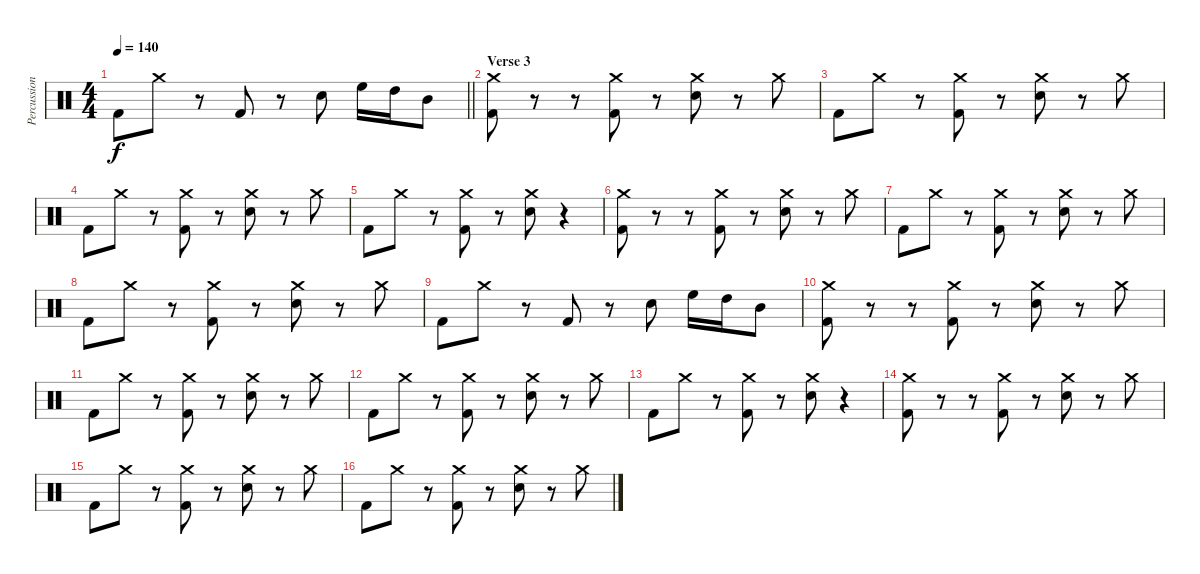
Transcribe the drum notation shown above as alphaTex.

\track ("Percussion" "Percussion") {instrument percussion}
\staff {score}
\articulation defaults
\ts (4 4)
\tempo 140
\clef neutral
\barLineRight lightlight
\ks c "Kick (hit) 2".8{dy f} "Crash medium (hit)".8
r.8 "Kick (hit) 2".8 r.8 "Electric Snare (hit)".8 "High Floor Tom (hit)".16 "High Tom (hit)".16 "Mid Tom (hit)".8 |
\section ("" "Verse 3")
("Crash medium (hit)" "Kick (hit) 2").8{volume 16} r.8 r.8 ("Crash medium (hit)" "Kick (hit) 2").8 r.8 ("Crash medium (hit)" "Electric Snare (hit)").8 r.8 "Crash medium (hit)".8 |
"Kick (hit) 2".8 "Crash medium (hit)".8 r.8 ("Crash medium (hit)" "Kick (hit) 2").8 r.8 ("Crash medium (hit)" "Electric Snare (hit)").8 r.8 "Crash medium (hit)".8 |
"Kick (hit) 2".8 "Crash medium (hit)".8 r.8 ("Crash medium (hit)" "Kick (hit) 2").8 r.8 ("Crash medium (hit)" "Electric Snare (hit)").8 r.8 "Crash medium (hit)".8 |
"Kick (hit) 2".8 "Crash medium (hit)".8 r.8 ("Crash medium (hit)" "Kick (hit) 2").8 r.8 ("Crash medium (hit)" "Electric Snare (hit)").8 r.4 |
("Crash medium (hit)" "Kick (hit) 2").8 r.8 r.8 ("Crash medium (hit)" "Kick (hit) 2").8 r.8 ("Crash medium (hit)" "Electric Snare (hit)").8 r.8 "Crash medium (hit)".8 |
"Kick (hit) 2".8 "Crash medium (hit)".8 r.8 ("Crash medium (hit)" "Kick (hit) 2").8 r.8 ("Crash medium (hit)" "Electric Snare (hit)").8 r.8 "Crash medium (hit)".8 |
"Kick (hit) 2".8 "Crash medium (hit)".8 r.8 ("Crash medium (hit)" "Kick (hit) 2").8 r.8 ("Crash medium (hit)" "Electric Snare (hit)").8 r.8 "Crash medium (hit)".8 |
"Kick (hit) 2".8 "Crash medium (hit)".8 r.8 "Kick (hit) 2".8 r.8 "Electric Snare (hit)".8 "High Floor Tom (hit)".16 "High Tom (hit)".16 "Mid Tom (hit)".8 |
("Crash medium (hit)" "Kick (hit) 2").8{volume 16} r.8 r.8 ("Crash medium (hit)" "Kick (hit) 2").8 r.8 ("Crash medium (hit)" "Electric Snare (hit)").8 r.8 "Crash medium (hit)".8 |
"Kick (hit) 2".8 "Crash medium (hit)".8 r.8 ("Crash medium (hit)" "Kick (hit) 2").8 r.8 ("Crash medium (hit)" "Electric Snare (hit)").8 r.8 "Crash medium (hit)".8 |
"Kick (hit) 2".8 "Crash medium (hit)".8 r.8 ("Crash medium (hit)" "Kick (hit) 2").8 r.8 ("Crash medium (hit)" "Electric Snare (hit)").8 r.8 "Crash medium (hit)".8 |
"Kick (hit) 2".8 "Crash medium (hit)".8 r.8 ("Crash medium (hit)" "Kick (hit) 2").8 r.8 ("Crash medium (hit)" "Electric Snare (hit)").8 r.4 |
("Crash medium (hit)" "Kick (hit) 2").8 r.8 r.8 ("Crash medium (hit)" "Kick (hit) 2").8 r.8 ("Crash medium (hit)" "Electric Snare (hit)").8 r.8 "Crash medium (hit)".8 |
"Kick (hit) 2".8 "Crash medium (hit)".8 r.8 ("Crash medium (hit)" "Kick (hit) 2").8 r.8 ("Crash medium (hit)" "Electric Snare (hit)").8 r.8 "Crash medium (hit)".8 |
"Kick (hit) 2".8 "Crash medium (hit)".8 r.8 ("Crash medium (hit)" "Kick (hit) 2").8 r.8 ("Crash medium (hit)" "Electric Snare (hit)").8 r.8 "Crash medium (hit)".8
